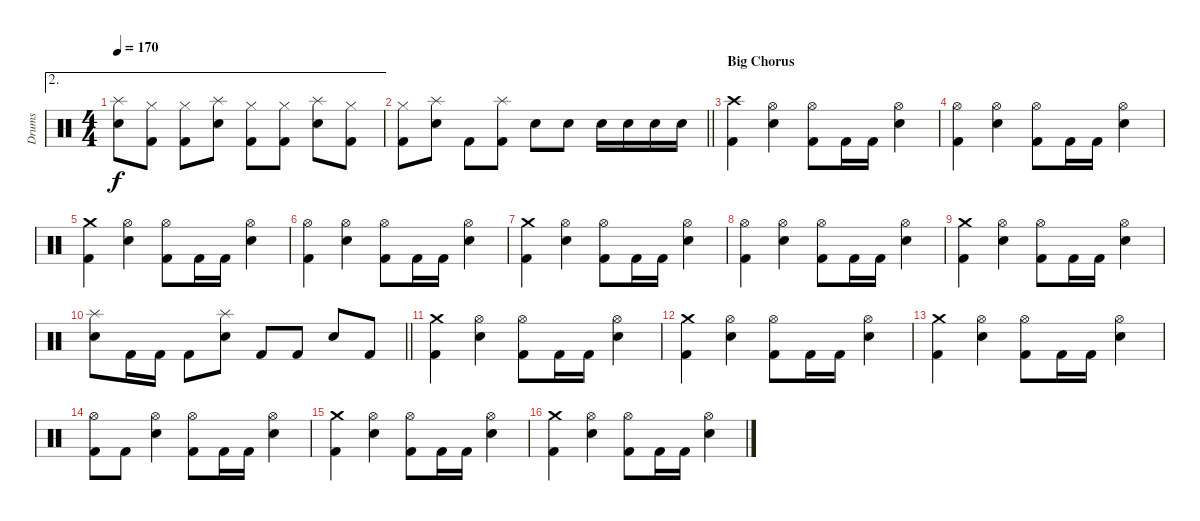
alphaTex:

\track ("Drums" "Drums") {instrument percussion}
\staff {score}
\articulation defaults
\ae 2
\ts (4 4)
\tempo 170
\clef neutral
\ks c
("Splash (hit)" "Snare (hit) 2").8{dy f} ("Hi-Hat (closed)" "Kick (hit) 2").8 ("Hi-Hat (closed)" "Kick (hit) 2").8 ("Splash (hit)" "Snare (hit) 2").8 ("Hi-Hat (closed)" "Kick (hit) 2").8 ("Hi-Hat (closed)" "Kick (hit) 2").8 ("Splash (hit)" "Snare (hit) 2").8 ("Hi-Hat (closed)" "Kick (hit) 2").8 |
\barLineRight lightlight
("Hi-Hat (closed)" "Kick (hit) 2").8 ("Splash (hit)" "Snare (hit) 2").8 "Kick (hit) 2".8 ("Splash (hit)" "Kick (hit) 2").8 "Snare (hit) 2".8 "Snare (hit) 2".8 "Snare (hit) 2".16 "Snare (hit) 2".16 "Snare (hit) 2".16 "Snare (hit) 2".16 |
\section ("" "Big Chorus")
("Crash high (hit)" "Kick (hit) 2").4 ("Hi-Hat (open)" "Snare (hit) 2").4 ("Hi-Hat (open)" "Kick (hit) 2").8 "Kick (hit) 2".16 "Kick (hit) 2".16 ("Hi-Hat (open)" "Snare (hit) 2").4 |
("Hi-Hat (open)" "Kick (hit) 2").4 ("Hi-Hat (open)" "Snare (hit) 2").4 ("Hi-Hat (open)" "Kick (hit) 2").8 "Kick (hit) 2".16 "Kick (hit) 2".16 ("Hi-Hat (open)" "Snare (hit) 2").4 |
("Crash medium (hit)" "Kick (hit) 2").4 ("Hi-Hat (open)" "Snare (hit) 2").4 ("Hi-Hat (open)" "Kick (hit) 2").8 "Kick (hit) 2".16 "Kick (hit) 2".16 ("Hi-Hat (open)" "Snare (hit) 2").4 |
("Hi-Hat (open)" "Kick (hit) 2").4 ("Hi-Hat (open)" "Snare (hit) 2").4 ("Hi-Hat (open)" "Kick (hit) 2").8 "Kick (hit) 2".16 "Kick (hit) 2".16 ("Hi-Hat (open)" "Snare (hit) 2").4 |
("Crash medium (hit)" "Kick (hit) 2").4 ("Hi-Hat (open)" "Snare (hit) 2").4 ("Hi-Hat (open)" "Kick (hit) 2").8 "Kick (hit) 2".16 "Kick (hit) 2".16 ("Hi-Hat (open)" "Snare (hit) 2").4 |
("Hi-Hat (open)" "Kick (hit) 2").4 ("Hi-Hat (open)" "Snare (hit) 2").4 ("Hi-Hat (open)" "Kick (hit) 2").8 "Kick (hit) 2".16 "Kick (hit) 2".16 ("Hi-Hat (open)" "Snare (hit) 2").4 |
("Crash medium (hit)" "Kick (hit) 2").4 ("Hi-Hat (open)" "Snare (hit) 2").4 ("Hi-Hat (open)" "Kick (hit) 2").8 "Kick (hit) 2".16 "Kick (hit) 2".16 ("Hi-Hat (open)" "Snare (hit) 2").4 |
\barLineRight lightlight
("Splash (hit)" "Snare (hit) 2").8 "Kick (hit) 2".16 "Kick (hit) 2".16 "Kick (hit) 2".8 ("Splash (hit)" "Snare (hit) 2").8 "Kick (hit) 2".8 "Kick (hit) 2".8 "Snare (hit) 2".8 "Kick (hit) 2".8 |
("Crash medium (hit)" "Kick (hit) 2").4 ("Hi-Hat (open)" "Snare (hit) 2").4 ("Hi-Hat (open)" "Kick (hit) 2").8 "Kick (hit) 2".16 "Kick (hit) 2".16 ("Hi-Hat (open)" "Snare (hit) 2").4 |
("Crash medium (hit)" "Kick (hit) 2").4 ("Hi-Hat (open)" "Snare (hit) 2").4 ("Hi-Hat (open)" "Kick (hit) 2").8 "Kick (hit) 2".16 "Kick (hit) 2".16 ("Hi-Hat (open)" "Snare (hit) 2").4 |
("Crash medium (hit)" "Kick (hit) 2").4 ("Hi-Hat (open)" "Snare (hit) 2").4 ("Hi-Hat (open)" "Kick (hit) 2").8 "Kick (hit) 2".16 "Kick (hit) 2".16 ("Hi-Hat (open)" "Snare (hit) 2").4 |
("Hi-Hat (open)" "Kick (hit) 2").8 "Kick (hit) 2".8 ("Hi-Hat (open)" "Snare (hit) 2").4 ("Hi-Hat (open)" "Kick (hit) 2").8 "Kick (hit) 2".16 "Kick (hit) 2".16 ("Hi-Hat (open)" "Snare (hit) 2").4 |
("Crash medium (hit)" "Kick (hit) 2").4 ("Hi-Hat (open)" "Snare (hit) 2").4 ("Hi-Hat (open)" "Kick (hit) 2").8 "Kick (hit) 2".16 "Kick (hit) 2".16 ("Hi-Hat (open)" "Snare (hit) 2").4 |
("Crash medium (hit)" "Kick (hit) 2").4 ("Hi-Hat (open)" "Snare (hit) 2").4 ("Hi-Hat (open)" "Kick (hit) 2").8 "Kick (hit) 2".16 "Kick (hit) 2".16 ("Hi-Hat (open)" "Snare (hit) 2").4
